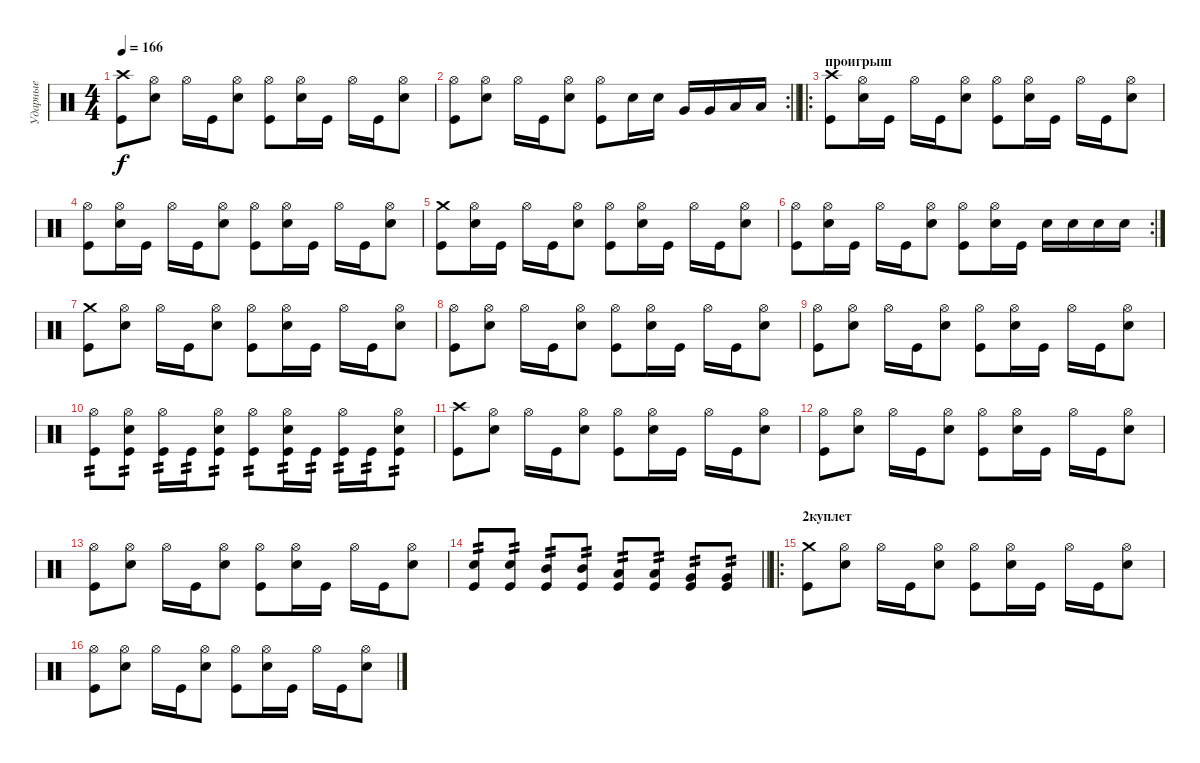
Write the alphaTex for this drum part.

\track ("Ударные" "Ударные") {instrument percussion}
\staff {score}
\articulation defaults
\ts (4 4)
\tempo 166
\clef neutral
\ks c
("Kick (hit)" "Crash high (hit)").8{dy f} ("Electric Snare (hit)" "Hi-Hat (open)").8 "Hi-Hat (open)".16 "Kick (hit)".16 ("Electric Snare (hit)" "Hi-Hat (open)").8 ("Kick (hit)" "Hi-Hat (open)").8 ("Electric Snare (hit)" "Hi-Hat (open)").16 "Kick (hit)".16 "Hi-Hat (open)".16 "Kick (hit)".16 ("Electric Snare (hit)" "Hi-Hat (open)").8 |
\rc 2
\barLineRight lightlight
("Kick (hit)" "Hi-Hat (open)").8 ("Electric Snare (hit)" "Hi-Hat (open)").8 "Hi-Hat (open)".16 "Kick (hit)".16 ("Electric Snare (hit)" "Hi-Hat (open)").8 ("Kick (hit)" "Hi-Hat (open)").8 "Electric Snare (hit)".16 "Electric Snare (hit)".16 "Very Low Tom (hit)".16 "Very Low Tom (hit)".16 "Low Tom (hit)".16 "Low Tom (hit)".16 |
\ro
\section ("" "проигрыш")
("Kick (hit)" "Crash high (hit)").8 ("Electric Snare (hit)" "Hi-Hat (open)").16 "Kick (hit)".16 "Hi-Hat (open)".16 "Kick (hit)".16 ("Electric Snare (hit)" "Hi-Hat (open)").8 ("Kick (hit)" "Hi-Hat (open)").8 ("Electric Snare (hit)" "Hi-Hat (open)").16 "Kick (hit)".16 "Hi-Hat (open)".16 "Kick (hit)".16 ("Electric Snare (hit)" "Hi-Hat (open)").8 |
("Kick (hit)" "Hi-Hat (open)").8 ("Electric Snare (hit)" "Hi-Hat (open)").16 "Kick (hit)".16 "Hi-Hat (open)".16 "Kick (hit)".16 ("Electric Snare (hit)" "Hi-Hat (open)").8 ("Kick (hit)" "Hi-Hat (open)").8 ("Electric Snare (hit)" "Hi-Hat (open)").16 "Kick (hit)".16 "Hi-Hat (open)".16 "Kick (hit)".16 ("Electric Snare (hit)" "Hi-Hat (open)").8 |
("Kick (hit)" "Crash medium (hit)").8 ("Electric Snare (hit)" "Hi-Hat (open)").16 "Kick (hit)".16 "Hi-Hat (open)".16 "Kick (hit)".16 ("Electric Snare (hit)" "Hi-Hat (open)").8 ("Kick (hit)" "Hi-Hat (open)").8 ("Electric Snare (hit)" "Hi-Hat (open)").16 "Kick (hit)".16 "Hi-Hat (open)".16 "Kick (hit)".16 ("Electric Snare (hit)" "Hi-Hat (open)").8 |
\rc 2
("Kick (hit)" "Hi-Hat (open)").8 ("Electric Snare (hit)" "Hi-Hat (open)").16 "Kick (hit)".16 "Hi-Hat (open)".16 "Kick (hit)".16 ("Electric Snare (hit)" "Hi-Hat (open)").8 ("Kick (hit)" "Hi-Hat (open)").8 ("Electric Snare (hit)" "Hi-Hat (open)").16 "Kick (hit)".16 "Electric Snare (hit)".16 "Electric Snare (hit)".16 "Electric Snare (hit)".16 "Electric Snare (hit)".16 |
("Kick (hit)" "Crash medium (hit)").8 ("Electric Snare (hit)" "Hi-Hat (open)").8 "Hi-Hat (open)".16 "Kick (hit)".16 ("Electric Snare (hit)" "Hi-Hat (open)").8 ("Kick (hit)" "Hi-Hat (open)").8 ("Electric Snare (hit)" "Hi-Hat (open)").16 "Kick (hit)".16 "Hi-Hat (open)".16 "Kick (hit)".16 ("Electric Snare (hit)" "Hi-Hat (open)").8 |
("Kick (hit)" "Hi-Hat (open)").8 ("Electric Snare (hit)" "Hi-Hat (open)").8 "Hi-Hat (open)".16 "Kick (hit)".16 ("Electric Snare (hit)" "Hi-Hat (open)").8 ("Kick (hit)" "Hi-Hat (open)").8 ("Electric Snare (hit)" "Hi-Hat (open)").16 "Kick (hit)".16 "Hi-Hat (open)".16 "Kick (hit)".16 ("Electric Snare (hit)" "Hi-Hat (open)").8 |
("Kick (hit)" "Hi-Hat (open)").8 ("Electric Snare (hit)" "Hi-Hat (open)").8 "Hi-Hat (open)".16 "Kick (hit)".16 ("Electric Snare (hit)" "Hi-Hat (open)").8 ("Kick (hit)" "Hi-Hat (open)").8 ("Electric Snare (hit)" "Hi-Hat (open)").16 "Kick (hit)".16 "Hi-Hat (open)".16 "Kick (hit)".16 ("Electric Snare (hit)" "Hi-Hat (open)").8 |
("Kick (hit)" "Hi-Hat (open)").8{tp 2} ("Electric Snare (hit)" "Hi-Hat (open)" "Kick (hit)").8{tp 2} ("Hi-Hat (open)" "Kick (hit)").16{tp 2} "Kick (hit)".16{tp 2} ("Electric Snare (hit)" "Hi-Hat (open)" "Kick (hit)").8{tp 2} ("Kick (hit)" "Hi-Hat (open)").8{tp 2} ("Electric Snare (hit)" "Hi-Hat (open)" "Kick (hit)").16{tp 2} "Kick (hit)".16{tp 2} ("Hi-Hat (open)" "Kick (hit)").16{tp 2} "Kick (hit)".16{tp 2} ("Electric Snare (hit)" "Hi-Hat (open)" "Kick (hit)").8{tp 2} |
("Kick (hit)" "Crash high (hit)").8 ("Electric Snare (hit)" "Hi-Hat (open)").8 "Hi-Hat (open)".16 "Kick (hit)".16 ("Electric Snare (hit)" "Hi-Hat (open)").8 ("Kick (hit)" "Hi-Hat (open)").8 ("Electric Snare (hit)" "Hi-Hat (open)").16 "Kick (hit)".16 "Hi-Hat (open)".16 "Kick (hit)".16 ("Electric Snare (hit)" "Hi-Hat (open)").8 |
("Kick (hit)" "Hi-Hat (open)").8 ("Electric Snare (hit)" "Hi-Hat (open)").8 "Hi-Hat (open)".16 "Kick (hit)".16 ("Electric Snare (hit)" "Hi-Hat (open)").8 ("Kick (hit)" "Hi-Hat (open)").8 ("Electric Snare (hit)" "Hi-Hat (open)").16 "Kick (hit)".16 "Hi-Hat (open)".16 "Kick (hit)".16 ("Electric Snare (hit)" "Hi-Hat (open)").8 |
("Kick (hit)" "Hi-Hat (open)").8 ("Electric Snare (hit)" "Hi-Hat (open)").8 "Hi-Hat (open)".16 "Kick (hit)".16 ("Electric Snare (hit)" "Hi-Hat (open)").8 ("Kick (hit)" "Hi-Hat (open)").8 ("Electric Snare (hit)" "Hi-Hat (open)").16 "Kick (hit)".16 "Hi-Hat (open)".16 "Kick (hit)".16 ("Electric Snare (hit)" "Hi-Hat (open)").8 |
\barLineRight lightlight
("Kick (hit)" "Electric Snare (hit)").8{tp 2} ("Kick (hit)" "Electric Snare (hit)").8{tp 2} ("Kick (hit)" "Mid Tom (hit)").8{tp 2} ("Kick (hit)" "Mid Tom (hit)").8{tp 2} ("Kick (hit)" "Low Tom (hit)").8{tp 2} ("Kick (hit)" "Low Tom (hit)").8{tp 2} ("Kick (hit)" "Very Low Tom (hit)").8{tp 2} ("Kick (hit)" "Very Low Tom (hit)").8{tp 2} |
\ro
\section ("" "2куплет")
("Kick (hit)" "Crash medium (hit)").8 ("Electric Snare (hit)" "Hi-Hat (open)").8 "Hi-Hat (open)".16 "Kick (hit)".16 ("Electric Snare (hit)" "Hi-Hat (open)").8 ("Kick (hit)" "Hi-Hat (open)").8 ("Electric Snare (hit)" "Hi-Hat (open)").16 "Kick (hit)".16 "Hi-Hat (open)".16 "Kick (hit)".16 ("Electric Snare (hit)" "Hi-Hat (open)").8 |
("Kick (hit)" "Hi-Hat (open)").8 ("Electric Snare (hit)" "Hi-Hat (open)").8 "Hi-Hat (open)".16 "Kick (hit)".16 ("Electric Snare (hit)" "Hi-Hat (open)").8 ("Kick (hit)" "Hi-Hat (open)").8 ("Electric Snare (hit)" "Hi-Hat (open)").16 "Kick (hit)".16 "Hi-Hat (open)".16 "Kick (hit)".16 ("Electric Snare (hit)" "Hi-Hat (open)").8
